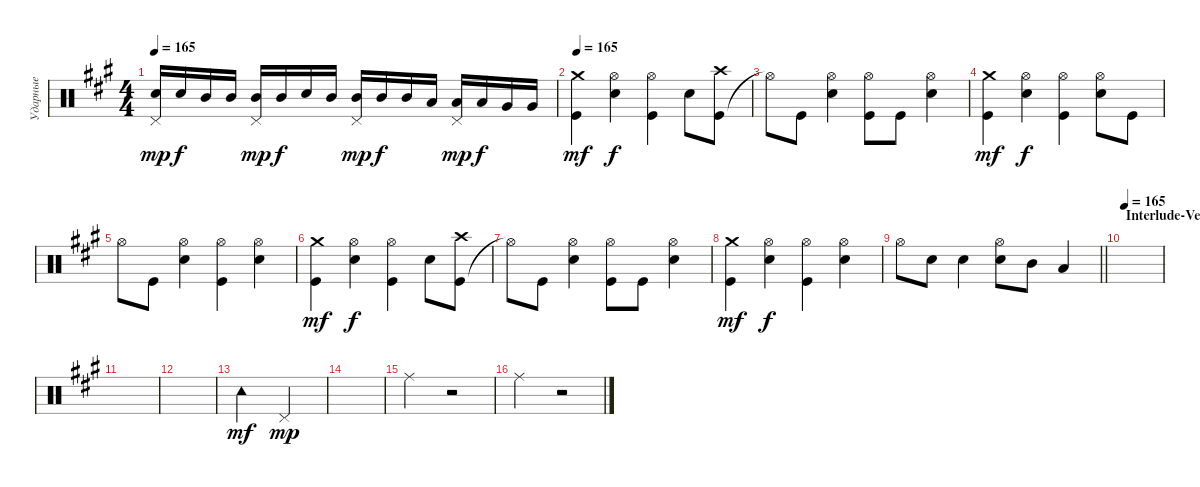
\track ("Ударные" "Ударные") {instrument percussion}
\staff {score}
\articulation defaults
\ts (4 4)
\tempo 165
\clef neutral
\ks f#minor
("Snare (hit) 2" "Pedal Hi-Hat (hit)").16{dy mp} "Snare (hit) 2".16{dy f} "Mid Tom (hit)".16 "Mid Tom (hit)".16 ("Mid Tom (hit)" "Pedal Hi-Hat (hit)").16{dy mp} "Mid Tom (hit)".16{dy f} "Snare (hit) 2".16 "Mid Tom (hit)".16 ("Mid Tom (hit)" "Pedal Hi-Hat (hit)").16{dy mp} "Mid Tom (hit)".16{dy f} "Mid Tom (hit)".16 "Low Tom (hit)".16 ("Pedal Hi-Hat (hit)" "Low Tom (hit)").16{dy mp} "Low Tom (hit)".16{dy f} "Very Low Tom (hit)".16 "Very Low Tom (hit)".16 |
\tempo 165
("Kick (hit)" "Crash medium (hit)").4{dy mf} ("Hi-Hat (open)" "Snare (hit) 2").4{dy f} ("Kick (hit)" "Hi-Hat (open)").4 "Snare (hit) 2".8 ("Kick (hit)" "Crash high (hit)").8 |
"Hi-Hat (open)"{t}.8 "Kick (hit)".8 ("Snare (hit) 2" "Hi-Hat (open)").4 ("Kick (hit)" "Hi-Hat (open)").8 "Kick (hit)".8 ("Snare (hit) 2" "Hi-Hat (open)").4 |
("Kick (hit)" "Crash medium (hit)").4{dy mf} ("Snare (hit) 2" "Hi-Hat (open)").4{dy f} ("Kick (hit)" "Hi-Hat (open)").4 ("Snare (hit) 2" "Hi-Hat (open)").8 "Kick (hit)".8 |
"Hi-Hat (open)".8 "Kick (hit)".8 ("Snare (hit) 2" "Hi-Hat (open)").4 ("Kick (hit)" "Hi-Hat (open)").4 ("Snare (hit) 2" "Hi-Hat (open)").4 |
("Kick (hit)" "Crash medium (hit)").4{dy mf} ("Hi-Hat (open)" "Snare (hit) 2").4{dy f} ("Kick (hit)" "Hi-Hat (open)").4 "Snare (hit) 2".8 ("Kick (hit)" "Crash high (hit)").8 |
"Hi-Hat (open)"{t}.8 "Kick (hit)".8 ("Snare (hit) 2" "Hi-Hat (open)").4 ("Kick (hit)" "Hi-Hat (open)").8 "Kick (hit)".8 ("Snare (hit) 2" "Hi-Hat (open)").4 |
("Kick (hit)" "Crash medium (hit)").4{dy mf} ("Snare (hit) 2" "Hi-Hat (open)").4{dy f} ("Kick (hit)" "Hi-Hat (open)").4 ("Snare (hit) 2" "Hi-Hat (open)").4 |
\barLineRight lightlight "Hi-Hat (open)".8 "Snare (hit) 2".8 "Snare (hit) 2".4
("Snare (hit) 2" "Hi-Hat (open)").8 "Mid Tom (hit)".8 "Low Tom (hit)".4 |
\section ("" "Interlude-Verse")
\tempo 165
|
|
|
"Tambourine (hit)".2{dy mf} "Pedal Hi-Hat (hit)".2{dy mp} |
|
"Ride (middle)".2 r.2 |
"Ride (middle)".2 r.2
